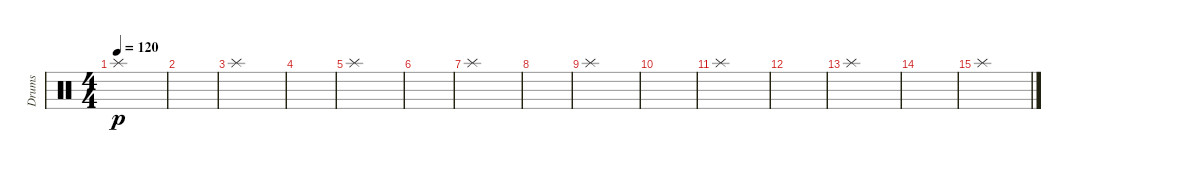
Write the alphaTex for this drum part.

\track ("Drums" "Drums") {instrument percussion}
\staff {score}
\articulation defaults
\ts (4 4)
\tempo 120
\clef neutral
\ks c "Splash (hit)".1{dy p}
|
|
"Splash (hit)".1 |
|
"Splash (hit)".1 |
|
"Splash (hit)".1 |
|
"Splash (hit)".1 |
|
"Splash (hit)".1 |
|
"Splash (hit)".1 |
|
"Splash (hit)".1
